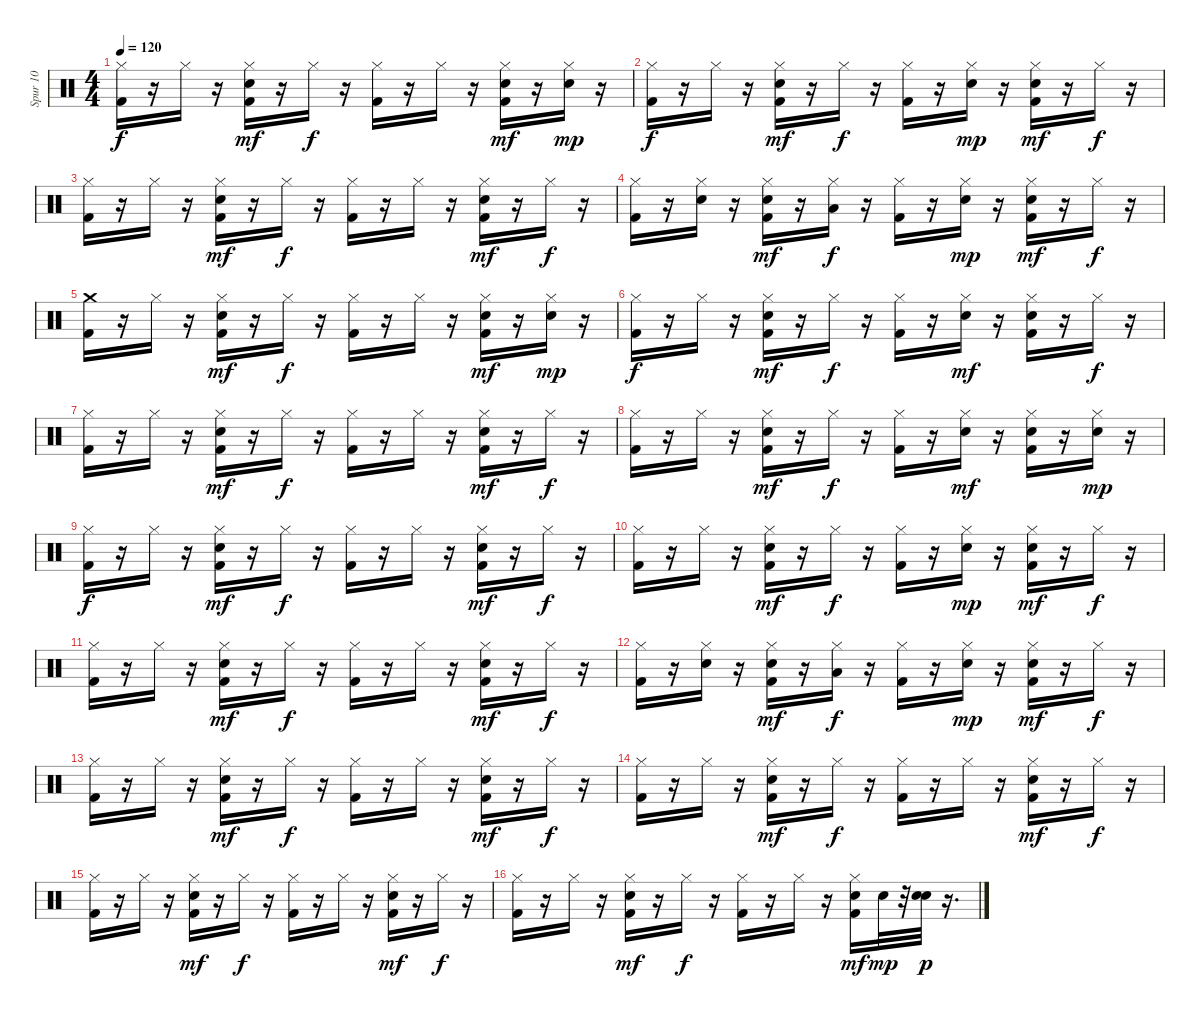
\track ("Spur 10" "Spur 10") {instrument percussion}
\staff {score}
\articulation defaults
\ts (4 4)
\tempo 120
\clef neutral
\ks c
("Hi-Hat (closed)" "Kick (hit) 2").16{dy f} r.16 "Hi-Hat (closed)".16 r.16 ("Hi-Hat (closed)" "Kick (hit) 2" "Snare (hit) 2").16{dy mf} r.16 "Hi-Hat (closed)".16{dy f} r.16 ("Kick (hit) 2" "Hi-Hat (closed)").16 r.16 "Hi-Hat (closed)".16 r.16 ("Hi-Hat (closed)" "Kick (hit) 2" "Snare (hit) 2").16{dy mf} r.16 ("Hi-Hat (closed)" "Snare (hit) 2").16{dy mp} r.16 |
("Hi-Hat (closed)" "Kick (hit) 2").16{dy f} r.16 "Hi-Hat (closed)".16 r.16 ("Hi-Hat (closed)" "Kick (hit) 2" "Snare (hit) 2").16{dy mf} r.16 "Hi-Hat (closed)".16{dy f} r.16 ("Kick (hit) 2" "Hi-Hat (closed)").16 r.16 ("Hi-Hat (closed)" "Snare (hit) 2").16{dy mp} r.16 ("Hi-Hat (closed)" "Kick (hit) 2" "Snare (hit) 2").16{dy mf} r.16 "Hi-Hat (closed)".16{dy f} r.16 |
("Hi-Hat (closed)" "Kick (hit) 2").16 r.16 "Hi-Hat (closed)".16 r.16 ("Hi-Hat (closed)" "Kick (hit) 2" "Snare (hit) 2").16{dy mf} r.16 "Hi-Hat (closed)".16{dy f} r.16 ("Kick (hit) 2" "Hi-Hat (closed)").16 r.16 "Hi-Hat (closed)".16 r.16 ("Hi-Hat (closed)" "Kick (hit) 2" "Snare (hit) 2").16{dy mf} r.16 "Hi-Hat (closed)".16{dy f} r.16 |
("Hi-Hat (closed)" "Kick (hit) 2").16 r.16 ("Electric Snare (hit)" "Hi-Hat (closed)").16 r.16 ("Hi-Hat (closed)" "Kick (hit) 2" "Snare (hit) 2").16{dy mf} r.16 ("Hi-Hat (closed)" "Low Tom (hit)").16{dy f} r.16 ("Kick (hit) 2" "Hi-Hat (closed)").16 r.16 ("Hi-Hat (closed)" "Snare (hit) 2").16{dy mp} r.16 ("Hi-Hat (closed)" "Kick (hit) 2" "Snare (hit) 2").16{dy mf} r.16 "Hi-Hat (closed)".16{dy f} r.16 |
("Crash medium (hit)" "Kick (hit) 2").16 r.16 "Hi-Hat (closed)".16 r.16 ("Hi-Hat (closed)" "Kick (hit) 2" "Snare (hit) 2").16{dy mf} r.16 "Hi-Hat (closed)".16{dy f} r.16 ("Kick (hit) 2" "Hi-Hat (closed)").16 r.16 "Hi-Hat (closed)".16 r.16 ("Hi-Hat (closed)" "Kick (hit) 2" "Snare (hit) 2").16{dy mf} r.16 ("Hi-Hat (closed)" "Snare (hit) 2").16{dy mp} r.16 |
("Hi-Hat (closed)" "Kick (hit) 2").16{dy f} r.16 "Hi-Hat (closed)".16 r.16 ("Hi-Hat (closed)" "Kick (hit) 2" "Snare (hit) 2").16{dy mf} r.16 "Hi-Hat (closed)".16{dy f} r.16 ("Hi-Hat (closed)" "Kick (hit) 2").16 r.16 ("Hi-Hat (closed)" "Snare (hit) 2").16{dy mf} r.16 ("Hi-Hat (closed)" "Kick (hit) 2" "Snare (hit) 2").16 r.16 "Hi-Hat (closed)".16{dy f} r.16 |
("Hi-Hat (closed)" "Kick (hit) 2").16 r.16 "Hi-Hat (closed)".16 r.16 ("Hi-Hat (closed)" "Kick (hit) 2" "Snare (hit) 2").16{dy mf} r.16 "Hi-Hat (closed)".16{dy f} r.16 ("Kick (hit) 2" "Hi-Hat (closed)").16 r.16 "Hi-Hat (closed)".16 r.16 ("Hi-Hat (closed)" "Kick (hit) 2" "Snare (hit) 2").16{dy mf} r.16 "Hi-Hat (closed)".16{dy f} r.16 |
("Hi-Hat (closed)" "Kick (hit) 2").16 r.16 "Hi-Hat (closed)".16 r.16 ("Hi-Hat (closed)" "Kick (hit) 2" "Snare (hit) 2").16{dy mf} r.16 "Hi-Hat (closed)".16{dy f} r.16 ("Kick (hit) 2" "Hi-Hat (closed)").16 r.16 ("Hi-Hat (closed)" "Snare (hit) 2").16{dy mf} r.16 ("Hi-Hat (closed)" "Kick (hit) 2" "Snare (hit) 2").16 r.16 ("Hi-Hat (closed)" "Snare (hit) 2").16{dy mp} r.16 |
("Hi-Hat (closed)" "Kick (hit) 2").16{dy f} r.16 "Hi-Hat (closed)".16 r.16 ("Hi-Hat (closed)" "Kick (hit) 2" "Snare (hit) 2").16{dy mf} r.16 "Hi-Hat (closed)".16{dy f} r.16 ("Kick (hit) 2" "Hi-Hat (closed)").16 r.16 "Hi-Hat (closed)".16 r.16 ("Hi-Hat (closed)" "Kick (hit) 2" "Snare (hit) 2").16{dy mf} r.16 "Hi-Hat (closed)".16{dy f} r.16 |
("Hi-Hat (closed)" "Kick (hit) 2").16 r.16 "Hi-Hat (closed)".16 r.16 ("Hi-Hat (closed)" "Kick (hit) 2" "Snare (hit) 2").16{dy mf} r.16 "Hi-Hat (closed)".16{dy f} r.16 ("Kick (hit) 2" "Hi-Hat (closed)").16 r.16 ("Hi-Hat (closed)" "Snare (hit) 2").16{dy mp} r.16 ("Hi-Hat (closed)" "Kick (hit) 2" "Snare (hit) 2").16{dy mf} r.16 "Hi-Hat (closed)".16{dy f} r.16 |
("Hi-Hat (closed)" "Kick (hit) 2").16 r.16 "Hi-Hat (closed)".16 r.16 ("Hi-Hat (closed)" "Kick (hit) 2" "Snare (hit) 2").16{dy mf} r.16 "Hi-Hat (closed)".16{dy f} r.16 ("Kick (hit) 2" "Hi-Hat (closed)").16 r.16 "Hi-Hat (closed)".16 r.16 ("Hi-Hat (closed)" "Kick (hit) 2" "Snare (hit) 2").16{dy mf} r.16 "Hi-Hat (closed)".16{dy f} r.16 |
("Hi-Hat (closed)" "Kick (hit) 2").16 r.16 ("Electric Snare (hit)" "Hi-Hat (closed)").16 r.16 ("Hi-Hat (closed)" "Kick (hit) 2" "Snare (hit) 2").16{dy mf} r.16 ("Hi-Hat (closed)" "Low Tom (hit)").16{dy f} r.16 ("Kick (hit) 2" "Hi-Hat (closed)").16 r.16 ("Hi-Hat (closed)" "Snare (hit) 2").16{dy mp} r.16 ("Hi-Hat (closed)" "Kick (hit) 2" "Snare (hit) 2").16{dy mf} r.16 "Hi-Hat (closed)".16{dy f} r.16 |
("Kick (hit) 2" "Hi-Hat (closed)").16 r.16 "Hi-Hat (closed)".16 r.16 ("Hi-Hat (closed)" "Kick (hit) 2" "Snare (hit) 2").16{dy mf} r.16 "Hi-Hat (closed)".16{dy f} r.16 ("Hi-Hat (closed)" "Kick (hit) 2").16 r.16 "Hi-Hat (closed)".16 r.16 ("Hi-Hat (closed)" "Kick (hit) 2" "Snare (hit) 2").16{dy mf} r.16 "Hi-Hat (closed)".16{dy f} r.16 |
("Hi-Hat (closed)" "Kick (hit) 2").16 r.16 "Hi-Hat (closed)".16 r.16 ("Hi-Hat (closed)" "Kick (hit) 2" "Snare (hit) 2").16{dy mf} r.16 "Hi-Hat (closed)".16{dy f} r.16 ("Hi-Hat (closed)" "Kick (hit) 2").16 r.16 "Hi-Hat (closed)".16 r.16 ("Hi-Hat (closed)" "Kick (hit) 2" "Snare (hit) 2").16{dy mf} r.16 "Hi-Hat (closed)".16{dy f} r.16 |
("Kick (hit) 2" "Hi-Hat (closed)").16 r.16 "Hi-Hat (closed)".16 r.16 ("Hi-Hat (closed)" "Kick (hit) 2" "Snare (hit) 2").16{dy mf} r.16 "Hi-Hat (closed)".16{dy f} r.16 ("Kick (hit) 2" "Hi-Hat (closed)").16 r.16 "Hi-Hat (closed)".16 r.16 ("Hi-Hat (closed)" "Kick (hit) 2" "Snare (hit) 2").16{dy mf} r.16 "Hi-Hat (closed)".16{dy f} r.16 |
("Hi-Hat (closed)" "Kick (hit) 2").16 r.16 "Hi-Hat (closed)".16 r.16 ("Hi-Hat (closed)" "Kick (hit) 2" "Snare (hit) 2").16{dy mf} r.16 "Hi-Hat (closed)".16{dy f} r.16 ("Kick (hit) 2" "Hi-Hat (closed)").16 r.16 "Hi-Hat (closed)".16 r.16 ("Kick (hit) 2" "Snare (hit) 2" "Hi-Hat (closed)").16{dy mf} "Snare (hit) 2".32{dy mp} r.32 ("Snare (hit) 2" "Snare (hit) 2").32{dy p} r.16{d}
